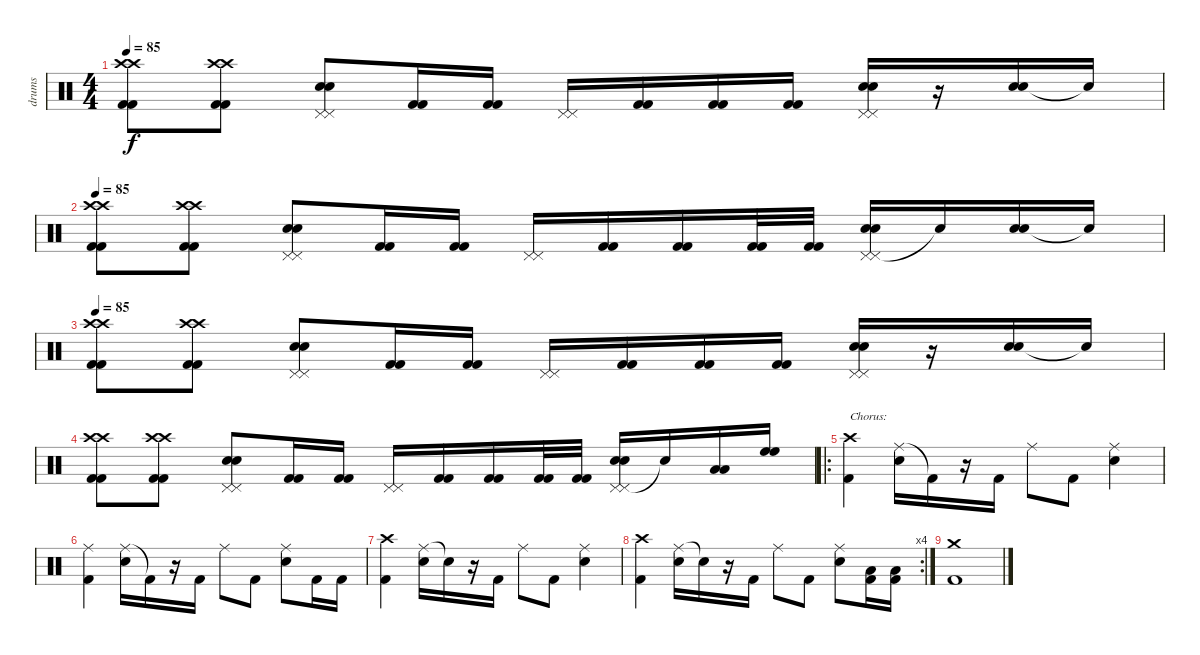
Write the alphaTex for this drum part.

\track ("drums" "drums") {instrument percussion}
\staff {score}
\articulation defaults
\ts (4 4)
\tempo 85
\clef neutral
\ks c
("Crash high (hit)" "Crash high (hit)" "Kick (hit) 2" "Kick (hit) 2").8{dy f} ("Crash high (hit)" "Crash high (hit)" "Kick (hit) 2" "Kick (hit) 2").8 ("Pedal Hi-Hat (hit)" "Pedal Hi-Hat (hit)" "Electric Snare (hit)" "Electric Snare (hit)").8 ("Kick (hit) 2" "Kick (hit) 2").16 ("Kick (hit) 2" "Kick (hit) 2").16 ("Pedal Hi-Hat (hit)" "Pedal Hi-Hat (hit)").16 ("Kick (hit) 2" "Kick (hit) 2").16 ("Kick (hit) 2" "Kick (hit) 2").16 ("Kick (hit) 2" "Kick (hit) 2").16 ("Pedal Hi-Hat (hit)" "Pedal Hi-Hat (hit)" "Electric Snare (hit)" "Electric Snare (hit)").16 r.16 ("Electric Snare (hit)" "Electric Snare (hit)").16 "Snare (hit)"{t}.16 |
\tempo 85
("Crash high (hit)" "Crash high (hit)" "Kick (hit) 2" "Kick (hit) 2").8 ("Crash high (hit)" "Crash high (hit)" "Kick (hit) 2" "Kick (hit) 2").8 ("Pedal Hi-Hat (hit)" "Pedal Hi-Hat (hit)" "Electric Snare (hit)" "Electric Snare (hit)").8 ("Kick (hit) 2" "Kick (hit) 2").16 ("Kick (hit) 2" "Kick (hit) 2").16 ("Pedal Hi-Hat (hit)" "Pedal Hi-Hat (hit)").16 ("Kick (hit) 2" "Kick (hit) 2").16 ("Kick (hit) 2" "Kick (hit) 2").16 ("Kick (hit) 2" "Kick (hit) 2").32 ("Kick (hit) 2" "Kick (hit) 2").32 ("Pedal Hi-Hat (hit)" "Pedal Hi-Hat (hit)" "Electric Snare (hit)" "Electric Snare (hit)").16 "Snare (hit)"{t}.16 ("Electric Snare (hit)" "Electric Snare (hit)").16 "Snare (hit)"{t}.16 |
\tempo 85
("Crash high (hit)" "Crash high (hit)" "Kick (hit) 2" "Kick (hit) 2").8 ("Crash high (hit)" "Crash high (hit)" "Kick (hit) 2" "Kick (hit) 2").8 ("Pedal Hi-Hat (hit)" "Pedal Hi-Hat (hit)" "Electric Snare (hit)" "Electric Snare (hit)").8 ("Kick (hit) 2" "Kick (hit) 2").16 ("Kick (hit) 2" "Kick (hit) 2").16 ("Pedal Hi-Hat (hit)" "Pedal Hi-Hat (hit)").16 ("Kick (hit) 2" "Kick (hit) 2").16 ("Kick (hit) 2" "Kick (hit) 2").16 ("Kick (hit) 2" "Kick (hit) 2").16 ("Pedal Hi-Hat (hit)" "Pedal Hi-Hat (hit)" "Electric Snare (hit)" "Electric Snare (hit)").16 r.16 ("Electric Snare (hit)" "Electric Snare (hit)").16 "Snare (hit)"{t}.16 |
("Crash high (hit)" "Crash high (hit)" "Kick (hit) 2" "Kick (hit) 2").8 ("Crash high (hit)" "Crash high (hit)" "Kick (hit) 2" "Kick (hit) 2").8 ("Pedal Hi-Hat (hit)" "Pedal Hi-Hat (hit)" "Electric Snare (hit)" "Electric Snare (hit)").8 ("Kick (hit) 2" "Kick (hit) 2").16 ("Kick (hit) 2" "Kick (hit) 2").16 ("Pedal Hi-Hat (hit)" "Pedal Hi-Hat (hit)").16 ("Kick (hit) 2" "Kick (hit) 2").16 ("Kick (hit) 2" "Kick (hit) 2").16 ("Kick (hit) 2" "Kick (hit) 2").32 ("Kick (hit) 2" "Kick (hit) 2").32 ("Pedal Hi-Hat (hit)" "Pedal Hi-Hat (hit)" "Electric Snare (hit)" "Electric Snare (hit)").16 "Snare (hit)"{t}.16 ("Low Tom (hit)" "Low Tom (hit)").16 ("High Floor Tom (hit)" "High Floor Tom (hit)").16 |
\ro
("Crash high (hit)" "Kick (hit) 2").4{txt "Chorus:"} ("Ride (middle)" "Electric Snare (hit)").16 "Kick (hit) 2"{t}.16 r.16 "Kick (hit) 2".16 "Ride (middle)".8 "Kick (hit) 2".8 ("Ride (middle)" "Electric Snare (hit)").4 |
("Ride (middle)" "Kick (hit) 2").4 ("Ride (middle)" "Electric Snare (hit)").16 "Kick (hit) 2"{t}.16 r.16 "Kick (hit) 2".16 "Ride (middle)".8 "Kick (hit) 2".8 ("Ride (middle)" "Electric Snare (hit)").8 "Kick (hit) 2".16 "Kick (hit) 2".16 |
("Crash high (hit)" "Kick (hit) 2").4 ("Ride (middle)" "Electric Snare (hit)").16 "Snare (hit)"{t}.16 r.16 "Kick (hit) 2".16 "Ride (middle)".8 "Kick (hit) 2".8 ("Ride (middle)" "Electric Snare (hit)").4 |
\rc 4
("Crash high (hit)" "Kick (hit) 2").4 ("Ride (middle)" "Electric Snare (hit)").16 "Snare (hit)"{t}.16 r.16 "Kick (hit) 2".16 "Ride (middle)".8 "Kick (hit) 2".8 ("Ride (middle)" "Electric Snare (hit)").8 ("Low Tom (hit)" "Kick (hit) 2").16 ("Low Tom (hit)" "Kick (hit) 2").16 |
("Crash medium (hit)" "Kick (hit) 2").1
